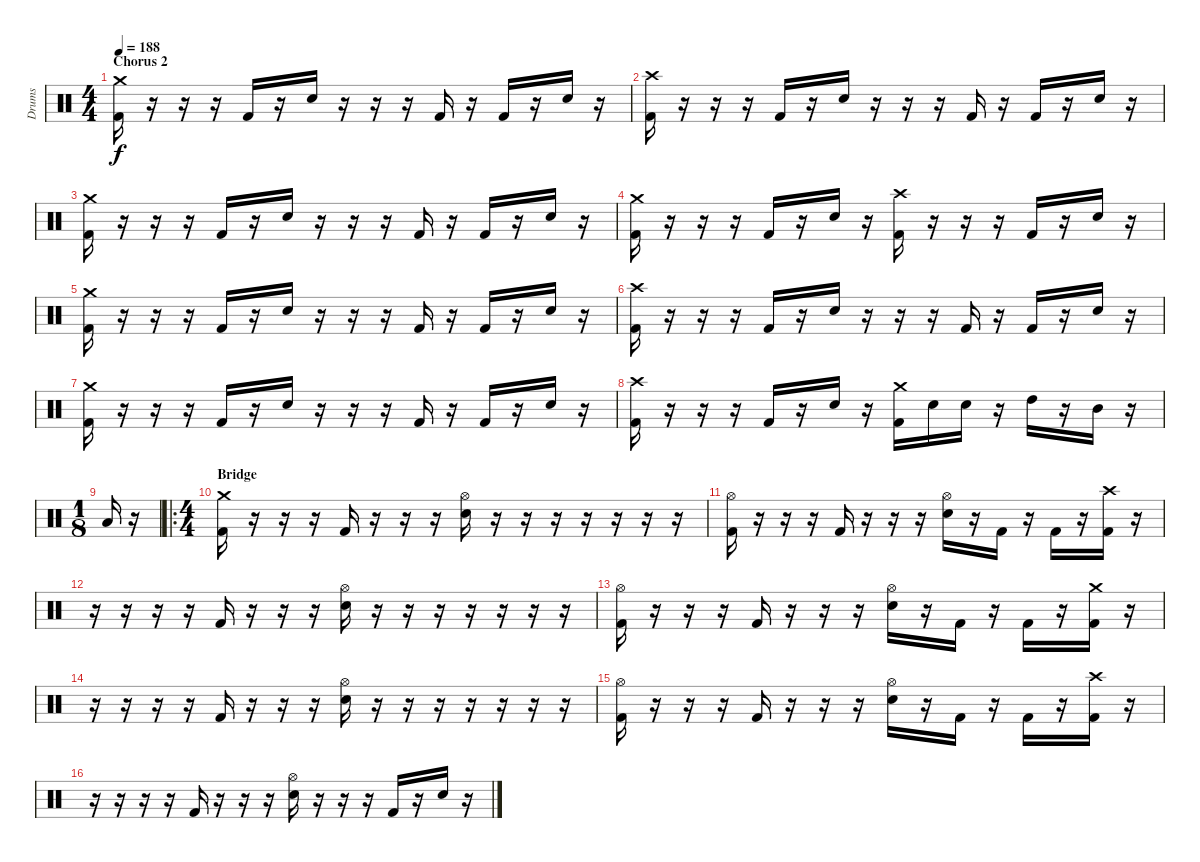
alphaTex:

\track ("Drums" "Drums") {instrument percussion}
\staff {score}
\articulation defaults
\ts (4 4)
\section ("" "Chorus 2")
\tempo 188
\clef neutral
\ks c
("Crash medium (hit)" "Kick (hit) 2").16{dy f} r.16 r.16 r.16 "Kick (hit) 2".16 r.16 "Electric Snare (hit)".16 r.16 r.16 r.16 "Kick (hit) 2".16 r.16 "Kick (hit) 2".16 r.16 "Electric Snare (hit)".16 r.16 |
("Crash high (hit)" "Kick (hit) 2").16 r.16 r.16 r.16 "Kick (hit) 2".16 r.16 "Electric Snare (hit)".16 r.16 r.16 r.16 "Kick (hit) 2".16 r.16 "Kick (hit) 2".16 r.16 "Electric Snare (hit)".16 r.16 |
("Crash medium (hit)" "Kick (hit) 2").16 r.16 r.16 r.16 "Kick (hit) 2".16 r.16 "Electric Snare (hit)".16 r.16 r.16 r.16 "Kick (hit) 2".16 r.16 "Kick (hit) 2".16 r.16 "Electric Snare (hit)".16 r.16 |
("Crash medium (hit)" "Kick (hit) 2").16 r.16 r.16 r.16 "Kick (hit) 2".16 r.16 "Electric Snare (hit)".16 r.16 ("Crash high (hit)" "Kick (hit) 2").16 r.16 r.16 r.16 "Kick (hit) 2".16 r.16 "Electric Snare (hit)".16 r.16 |
("Crash medium (hit)" "Kick (hit) 2").16 r.16 r.16 r.16 "Kick (hit) 2".16 r.16 "Electric Snare (hit)".16 r.16 r.16 r.16 "Kick (hit) 2".16 r.16 "Kick (hit) 2".16 r.16 "Electric Snare (hit)".16 r.16 |
("Crash high (hit)" "Kick (hit) 2").16 r.16 r.16 r.16 "Kick (hit) 2".16 r.16 "Electric Snare (hit)".16 r.16 r.16 r.16 "Kick (hit) 2".16 r.16 "Kick (hit) 2".16 r.16 "Electric Snare (hit)".16 r.16 |
("Crash medium (hit)" "Kick (hit) 2").16 r.16 r.16 r.16 "Kick (hit) 2".16 r.16 "Electric Snare (hit)".16 r.16 r.16 r.16 "Kick (hit) 2".16 r.16 "Kick (hit) 2".16 r.16 "Electric Snare (hit)".16 r.16 |
("Crash high (hit)" "Kick (hit) 2").16 r.16 r.16 r.16 "Kick (hit) 2".16 r.16 "Electric Snare (hit)".16 r.16 ("Crash medium (hit)" "Kick (hit) 2").16 "Electric Snare (hit)".16 "Electric Snare (hit)".16 r.16 "High Tom (hit)".16 r.16 "Mid Tom (hit)".16 r.16 |
\ts (1 8)
"Low Tom (hit)".16 r.16 |
\ro
\ts (4 4)
\section ("" "Bridge")
("Crash medium (hit)" "Kick (hit) 2").16 r.16 r.16 r.16 "Kick (hit) 2".16 r.16 r.16 r.16 ("Hi-Hat (open)" "Electric Snare (hit)").16 r.16 r.16 r.16 r.16 r.16 r.16 r.16 |
("Hi-Hat (open)" "Kick (hit) 2").16 r.16 r.16 r.16 "Kick (hit) 2".16 r.16 r.16 r.16 ("Hi-Hat (open)" "Electric Snare (hit)").16 r.16 "Kick (hit) 2".16 r.16 "Kick (hit) 2".16 r.16 ("Crash high (hit)" "Kick (hit) 2").16 r.16 |
r.16 r.16 r.16 r.16 "Kick (hit) 2".16 r.16 r.16 r.16 ("Hi-Hat (open)" "Electric Snare (hit)").16 r.16 r.16 r.16 r.16 r.16 r.16 r.16 |
("Hi-Hat (open)" "Kick (hit) 2").16 r.16 r.16 r.16 "Kick (hit) 2".16 r.16 r.16 r.16 ("Hi-Hat (open)" "Electric Snare (hit)").16 r.16 "Kick (hit) 2".16 r.16 "Kick (hit) 2".16 r.16 ("Crash medium (hit)" "Kick (hit) 2").16 r.16 |
r.16 r.16 r.16 r.16 "Kick (hit) 2".16 r.16 r.16 r.16 ("Hi-Hat (open)" "Electric Snare (hit)").16 r.16 r.16 r.16 r.16 r.16 r.16 r.16 |
("Hi-Hat (open)" "Kick (hit) 2").16 r.16 r.16 r.16 "Kick (hit) 2".16 r.16 r.16 r.16 ("Hi-Hat (open)" "Electric Snare (hit)").16 r.16 "Kick (hit) 2".16 r.16 "Kick (hit) 2".16 r.16 ("Crash high (hit)" "Kick (hit) 2").16 r.16 |
r.16 r.16 r.16 r.16 "Kick (hit) 2".16 r.16 r.16 r.16 ("Hi-Hat (open)" "Electric Snare (hit)").16 r.16 r.16 r.16 "Kick (hit) 2".16 r.16 "Electric Snare (hit)".16 r.16
